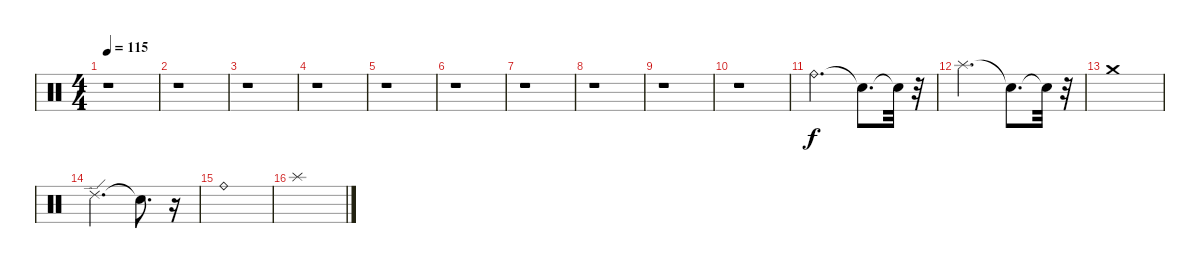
\track "" {instrument percussion}
\staff {score}
\articulation defaults
\ts (4 4)
\tempo 115
\clef neutral
\ks c
r.1{dy f} |
r.1 |
r.1 |
r.1 |
r.1 |
r.1 |
r.1 |
r.1 |
r.1 |
r.1 |
"Ride (bell)".2{d} "Snare (hit)"{t}.8{d} "Snare (hit)"{t}.32 r.32 |
"Splash (hit)".2{d} "Snare (hit)"{t}.8{d} "Snare (hit)"{t}.32 r.32 |
"Crash medium (hit)".1 |
"Ride (edge) 2".2{d} "Snare (hit)"{t}.8{d} r.16 |
"Ride (bell)".1 |
"Splash (hit)".1
